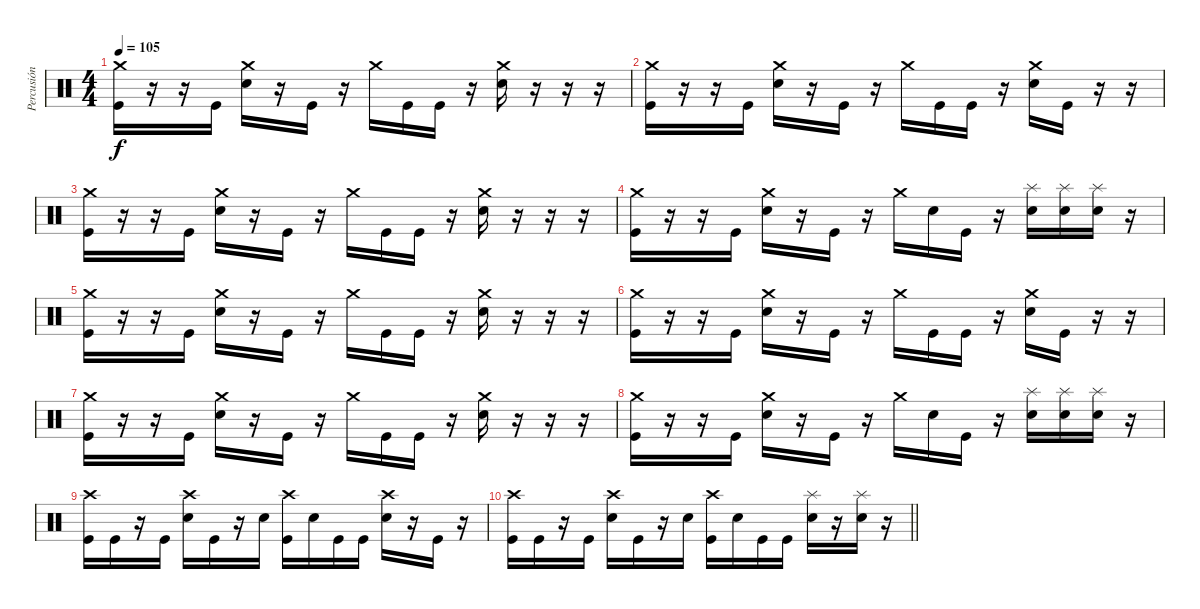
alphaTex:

\track ("Percusión" "Percusión") {instrument percussion}
\staff {score}
\articulation defaults
\ts (4 4)
\tempo 105
\clef neutral
\ks c
("Crash medium (hit)" "Kick (hit)").16{dy f} r.16 r.16 "Kick (hit)".16 ("Crash medium (hit)" "Electric Snare (hit)").16 r.16 "Kick (hit)".16 r.16 "Crash medium (hit)".16 "Kick (hit)".16 "Kick (hit)".16 r.16 ("Crash medium (hit)" "Electric Snare (hit)").16 r.16 r.16 r.16 |
("Crash medium (hit)" "Kick (hit)").16 r.16 r.16 "Kick (hit)".16 ("Crash medium (hit)" "Electric Snare (hit)").16 r.16 "Kick (hit)".16 r.16 "Crash medium (hit)".16 "Kick (hit)".16 "Kick (hit)".16 r.16 ("Crash medium (hit)" "Electric Snare (hit)").16 "Kick (hit)".16 r.16 r.16 |
("Crash medium (hit)" "Kick (hit)").16 r.16 r.16 "Kick (hit)".16 ("Crash medium (hit)" "Electric Snare (hit)").16 r.16 "Kick (hit)".16 r.16 "Crash medium (hit)".16 "Kick (hit)".16 "Kick (hit)".16 r.16 ("Crash medium (hit)" "Electric Snare (hit)").16 r.16 r.16 r.16 |
("Crash medium (hit)" "Kick (hit)").16 r.16 r.16 "Kick (hit)".16 ("Crash medium (hit)" "Electric Snare (hit)").16 r.16 "Kick (hit)".16 r.16 "Crash medium (hit)".16 "Electric Snare (hit)".16 "Kick (hit)".16 r.16 ("Splash (hit)" "Electric Snare (hit)").16 ("Splash (hit)" "Electric Snare (hit)").16 ("Splash (hit)" "Electric Snare (hit)").16 r.16 |
("Crash medium (hit)" "Kick (hit)").16 r.16 r.16 "Kick (hit)".16 ("Crash medium (hit)" "Electric Snare (hit)").16 r.16 "Kick (hit)".16 r.16 "Crash medium (hit)".16 "Kick (hit)".16 "Kick (hit)".16 r.16 ("Crash medium (hit)" "Electric Snare (hit)").16 r.16 r.16 r.16 |
("Crash medium (hit)" "Kick (hit)").16 r.16 r.16 "Kick (hit)".16 ("Crash medium (hit)" "Electric Snare (hit)").16 r.16 "Kick (hit)".16 r.16 "Crash medium (hit)".16 "Kick (hit)".16 "Kick (hit)".16 r.16 ("Crash medium (hit)" "Electric Snare (hit)").16 "Kick (hit)".16 r.16 r.16 |
("Crash medium (hit)" "Kick (hit)").16 r.16 r.16 "Kick (hit)".16 ("Crash medium (hit)" "Electric Snare (hit)").16 r.16 "Kick (hit)".16 r.16 "Crash medium (hit)".16 "Kick (hit)".16 "Kick (hit)".16 r.16 ("Crash medium (hit)" "Electric Snare (hit)").16 r.16 r.16 r.16 |
("Crash medium (hit)" "Kick (hit)").16 r.16 r.16 "Kick (hit)".16 ("Crash medium (hit)" "Electric Snare (hit)").16 r.16 "Kick (hit)".16 r.16 "Crash medium (hit)".16 "Electric Snare (hit)".16 "Kick (hit)".16 r.16 ("Splash (hit)" "Electric Snare (hit)").16 ("Splash (hit)" "Electric Snare (hit)").16 ("Splash (hit)" "Electric Snare (hit)").16 r.16 |
("Crash high (hit)" "Kick (hit)").16 "Kick (hit)".16 r.16 "Kick (hit)".16 ("Crash high (hit)" "Electric Snare (hit)").16 "Kick (hit)".16 r.16 "Electric Snare (hit)".16 ("Crash high (hit)" "Kick (hit)").16 "Electric Snare (hit)".16 "Kick (hit)".16 "Kick (hit)".16 ("Crash high (hit)" "Electric Snare (hit)").16 r.16 "Kick (hit)".16 r.16 |
\barLineRight lightlight
("Crash high (hit)" "Kick (hit)").16 "Kick (hit)".16 r.16 "Kick (hit)".16 ("Crash high (hit)" "Electric Snare (hit)").16 "Kick (hit)".16 r.16 "Electric Snare (hit)".16 ("Crash high (hit)" "Kick (hit)").16 "Electric Snare (hit)".16 "Kick (hit)".16 "Kick (hit)".16 ("Splash (hit)" "Electric Snare (hit)").16 r.16 ("Splash (hit)" "Electric Snare (hit)").16 r.16
